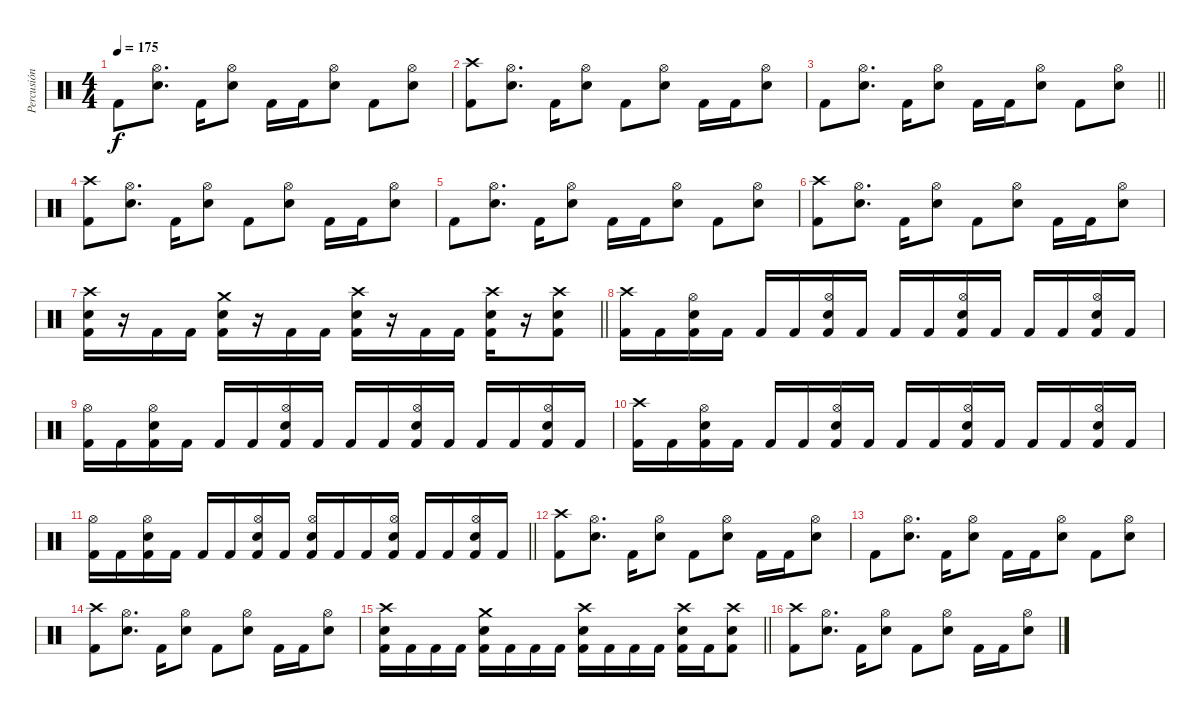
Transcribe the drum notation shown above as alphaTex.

\track ("Percusión" "Percusión") {instrument percussion}
\staff {score}
\articulation defaults
\ts (4 4)
\tempo 175
\clef neutral
\ks c "Kick (hit) 2".8{dy f}
("Hi-Hat (open)" "Electric Snare (hit)").8{d} "Kick (hit) 2".16 ("Hi-Hat (open)" "Electric Snare (hit)").8 "Kick (hit) 2".16 "Kick (hit) 2".16 ("Hi-Hat (open)" "Electric Snare (hit)").8 "Kick (hit) 2".8 ("Hi-Hat (open)" "Electric Snare (hit)").8 |
("Crash high (hit)" "Kick (hit) 2").8 ("Hi-Hat (open)" "Electric Snare (hit)").8{d} "Kick (hit) 2".16 ("Hi-Hat (open)" "Electric Snare (hit)").8 "Kick (hit) 2".8 ("Hi-Hat (open)" "Electric Snare (hit)").8 "Kick (hit) 2".16 "Kick (hit) 2".16 ("Hi-Hat (open)" "Electric Snare (hit)").8 |
\barLineRight lightlight "Kick (hit) 2".8
("Hi-Hat (open)" "Electric Snare (hit)").8{d} "Kick (hit) 2".16 ("Hi-Hat (open)" "Electric Snare (hit)").8 "Kick (hit) 2".16 "Kick (hit) 2".16 ("Hi-Hat (open)" "Electric Snare (hit)").8 "Kick (hit) 2".8 ("Hi-Hat (open)" "Electric Snare (hit)").8 |
("Crash high (hit)" "Kick (hit) 2").8 ("Hi-Hat (open)" "Electric Snare (hit)").8{d} "Kick (hit) 2".16 ("Hi-Hat (open)" "Electric Snare (hit)").8 "Kick (hit) 2".8 ("Hi-Hat (open)" "Electric Snare (hit)").8 "Kick (hit) 2".16 "Kick (hit) 2".16 ("Hi-Hat (open)" "Electric Snare (hit)").8 |
"Kick (hit) 2".8 ("Hi-Hat (open)" "Electric Snare (hit)").8{d} "Kick (hit) 2".16 ("Hi-Hat (open)" "Electric Snare (hit)").8 "Kick (hit) 2".16 "Kick (hit) 2".16 ("Hi-Hat (open)" "Electric Snare (hit)").8 "Kick (hit) 2".8 ("Hi-Hat (open)" "Electric Snare (hit)").8 |
("Crash high (hit)" "Kick (hit) 2").8 ("Hi-Hat (open)" "Electric Snare (hit)").8{d} "Kick (hit) 2".16 ("Hi-Hat (open)" "Electric Snare (hit)").8 "Kick (hit) 2".8 ("Hi-Hat (open)" "Electric Snare (hit)").8 "Kick (hit) 2".16 "Kick (hit) 2".16 ("Hi-Hat (open)" "Electric Snare (hit)").8 |
\barLineRight lightlight
("Crash high (hit)" "Electric Snare (hit)" "Kick (hit) 2").16 r.16 "Kick (hit) 2".16 "Kick (hit) 2".16 ("Crash medium (hit)" "Electric Snare (hit)" "Kick (hit) 2").16 r.16 "Kick (hit) 2".16 "Kick (hit) 2".16 ("Crash high (hit)" "Electric Snare (hit)" "Kick (hit) 2").16 r.16 "Kick (hit) 2".16 "Kick (hit) 2".16 ("Crash high (hit)" "Electric Snare (hit)" "Kick (hit) 2").16 r.16 ("Crash high (hit)" "Electric Snare (hit)" "Kick (hit) 2").8 |
("Crash high (hit)" "Kick (hit) 2").16 "Kick (hit) 2".16 ("Hi-Hat (open)" "Electric Snare (hit)" "Kick (hit) 2").16 "Kick (hit) 2".16 "Kick (hit) 2".16 "Kick (hit) 2".16 ("Hi-Hat (open)" "Electric Snare (hit)" "Kick (hit) 2").16 "Kick (hit) 2".16 "Kick (hit) 2".16 "Kick (hit) 2".16 ("Hi-Hat (open)" "Electric Snare (hit)" "Kick (hit) 2").16 "Kick (hit) 2".16 "Kick (hit) 2".16 "Kick (hit) 2".16 ("Hi-Hat (open)" "Electric Snare (hit)" "Kick (hit) 2").16 "Kick (hit) 2".16 |
("Hi-Hat (open)" "Kick (hit) 2").16 "Kick (hit) 2".16 ("Hi-Hat (open)" "Electric Snare (hit)" "Kick (hit) 2").16 "Kick (hit) 2".16 "Kick (hit) 2".16 "Kick (hit) 2".16 ("Hi-Hat (open)" "Electric Snare (hit)" "Kick (hit) 2").16 "Kick (hit) 2".16 "Kick (hit) 2".16 "Kick (hit) 2".16 ("Hi-Hat (open)" "Electric Snare (hit)" "Kick (hit) 2").16 "Kick (hit) 2".16 "Kick (hit) 2".16 "Kick (hit) 2".16 ("Hi-Hat (open)" "Electric Snare (hit)" "Kick (hit) 2").16 "Kick (hit) 2".16 |
("Crash high (hit)" "Kick (hit) 2").16 "Kick (hit) 2".16 ("Hi-Hat (open)" "Electric Snare (hit)" "Kick (hit) 2").16 "Kick (hit) 2".16 "Kick (hit) 2".16 "Kick (hit) 2".16 ("Hi-Hat (open)" "Electric Snare (hit)" "Kick (hit) 2").16 "Kick (hit) 2".16 "Kick (hit) 2".16 "Kick (hit) 2".16 ("Hi-Hat (open)" "Electric Snare (hit)" "Kick (hit) 2").16 "Kick (hit) 2".16 "Kick (hit) 2".16 "Kick (hit) 2".16 ("Hi-Hat (open)" "Electric Snare (hit)" "Kick (hit) 2").16 "Kick (hit) 2".16 |
\barLineRight lightlight
("Hi-Hat (open)" "Kick (hit) 2").16 "Kick (hit) 2".16 ("Hi-Hat (open)" "Electric Snare (hit)" "Kick (hit) 2").16 "Kick (hit) 2".16 "Kick (hit) 2".16 "Kick (hit) 2".16 ("Hi-Hat (open)" "Electric Snare (hit)" "Kick (hit) 2").16 "Kick (hit) 2".16 ("Hi-Hat (open)" "Electric Snare (hit)" "Kick (hit) 2").16 "Kick (hit) 2".16 "Kick (hit) 2".16 ("Hi-Hat (open)" "Electric Snare (hit)" "Kick (hit) 2").16 "Kick (hit) 2".16 "Kick (hit) 2".16 ("Hi-Hat (open)" "Electric Snare (hit)" "Kick (hit) 2").16 "Kick (hit) 2".16 |
("Crash high (hit)" "Kick (hit) 2").8 ("Hi-Hat (open)" "Electric Snare (hit)").8{d} "Kick (hit) 2".16 ("Hi-Hat (open)" "Electric Snare (hit)").8 "Kick (hit) 2".8 ("Hi-Hat (open)" "Electric Snare (hit)").8 "Kick (hit) 2".16 "Kick (hit) 2".16 ("Hi-Hat (open)" "Electric Snare (hit)").8 |
"Kick (hit) 2".8 ("Hi-Hat (open)" "Electric Snare (hit)").8{d} "Kick (hit) 2".16 ("Hi-Hat (open)" "Electric Snare (hit)").8 "Kick (hit) 2".16 "Kick (hit) 2".16 ("Hi-Hat (open)" "Electric Snare (hit)").8 "Kick (hit) 2".8 ("Hi-Hat (open)" "Electric Snare (hit)").8 |
("Crash high (hit)" "Kick (hit) 2").8 ("Hi-Hat (open)" "Electric Snare (hit)").8{d} "Kick (hit) 2".16 ("Hi-Hat (open)" "Electric Snare (hit)").8 "Kick (hit) 2".8 ("Hi-Hat (open)" "Electric Snare (hit)").8 "Kick (hit) 2".16 "Kick (hit) 2".16 ("Hi-Hat (open)" "Electric Snare (hit)").8 |
\barLineRight lightlight
("Crash high (hit)" "Electric Snare (hit)" "Kick (hit) 2").16 "Kick (hit) 2".16 "Kick (hit) 2".16 "Kick (hit) 2".16 ("Crash medium (hit)" "Electric Snare (hit)" "Kick (hit) 2").16 "Kick (hit) 2".16 "Kick (hit) 2".16 "Kick (hit) 2".16 ("Crash high (hit)" "Electric Snare (hit)" "Kick (hit) 2").16 "Kick (hit) 2".16 "Kick (hit) 2".16 "Kick (hit) 2".16 ("Crash high (hit)" "Electric Snare (hit)" "Kick (hit) 2").16 "Kick (hit) 2".16 ("Crash high (hit)" "Electric Snare (hit)" "Kick (hit) 2").8 |
("Crash high (hit)" "Kick (hit) 2").8 ("Hi-Hat (open)" "Electric Snare (hit)").8{d} "Kick (hit) 2".16 ("Hi-Hat (open)" "Electric Snare (hit)").8 "Kick (hit) 2".8 ("Hi-Hat (open)" "Electric Snare (hit)").8 "Kick (hit) 2".16 "Kick (hit) 2".16 ("Hi-Hat (open)" "Electric Snare (hit)").8
